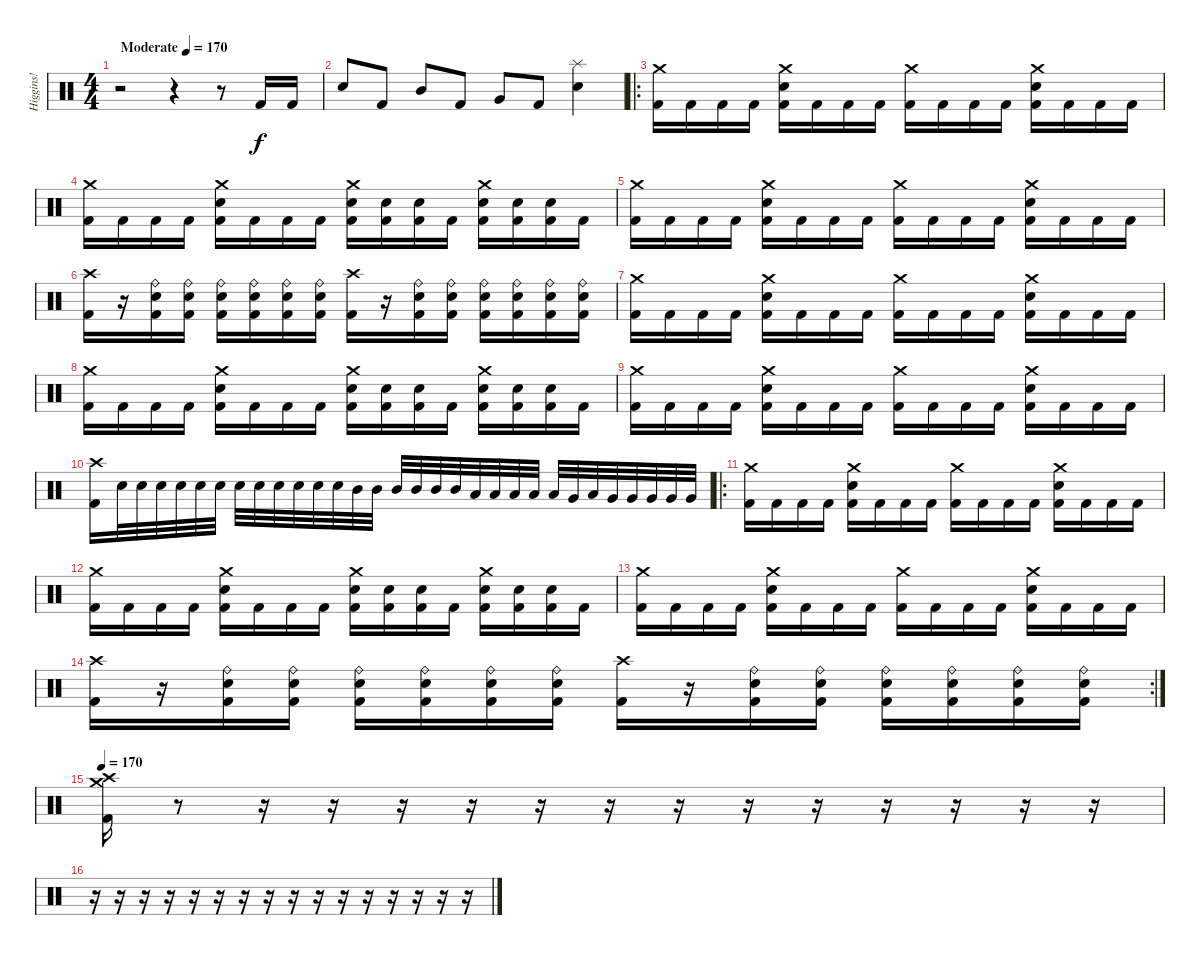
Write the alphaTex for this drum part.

\track ("Higgins!" "Higgins!") {instrument percussion}
\staff {score}
\articulation defaults
\ts (4 4)
\tempo (170 "Moderate")
\clef neutral
\ks c
r.2{dy f} r.4 r.8 "Kick (hit) 2".16 "Kick (hit) 2".16 |
"Snare (hit) 2".8 "Kick (hit) 2".8 "Mid Tom (hit)".8 "Kick (hit) 2".8 "Very Low Tom (hit)".8 "Kick (hit) 2".8 ("Splash (hit)" "Snare (hit) 2").4 |
\ro
("Crash medium (hit)" "Kick (hit) 2").16 "Kick (hit) 2".16 "Kick (hit) 2".16 "Kick (hit) 2".16 ("Crash medium (hit)" "Snare (hit) 2" "Kick (hit) 2").16 "Kick (hit) 2".16 "Kick (hit) 2".16 "Kick (hit) 2".16 ("Crash medium (hit)" "Kick (hit) 2").16 "Kick (hit) 2".16 "Kick (hit) 2".16 "Kick (hit) 2".16 ("Crash medium (hit)" "Snare (hit) 2" "Kick (hit) 2").16 "Kick (hit) 2".16 "Kick (hit) 2".16 "Kick (hit) 2".16 |
("Crash medium (hit)" "Kick (hit) 2").16 "Kick (hit) 2".16 "Kick (hit) 2".16 "Kick (hit) 2".16 ("Crash medium (hit)" "Snare (hit) 2" "Kick (hit) 2").16 "Kick (hit) 2".16 "Kick (hit) 2".16 "Kick (hit) 2".16 ("Crash medium (hit)" "Snare (hit) 2" "Kick (hit) 2").16 ("Snare (hit) 2" "Kick (hit) 2").16 ("Snare (hit) 2" "Kick (hit) 2").16 "Kick (hit) 2".16 ("Crash medium (hit)" "Snare (hit) 2" "Kick (hit) 2").16 ("Snare (hit) 2" "Kick (hit) 2").16 ("Snare (hit) 2" "Kick (hit) 2").16 "Kick (hit) 2".16 |
("Crash medium (hit)" "Kick (hit) 2").16 "Kick (hit) 2".16 "Kick (hit) 2".16 "Kick (hit) 2".16 ("Crash medium (hit)" "Snare (hit) 2" "Kick (hit) 2").16 "Kick (hit) 2".16 "Kick (hit) 2".16 "Kick (hit) 2".16 ("Crash medium (hit)" "Kick (hit) 2").16 "Kick (hit) 2".16 "Kick (hit) 2".16 "Kick (hit) 2".16 ("Crash medium (hit)" "Snare (hit) 2" "Kick (hit) 2").16 "Kick (hit) 2".16 "Kick (hit) 2".16 "Kick (hit) 2".16 |
("Crash high (hit)" "Kick (hit) 2").16 r.16 ("Ride (bell)" "Snare (hit) 2" "Kick (hit) 2").16 ("Ride (bell)" "Snare (hit) 2" "Kick (hit) 2").16 ("Ride (bell)" "Snare (hit) 2" "Kick (hit) 2").16 ("Ride (bell)" "Snare (hit) 2" "Kick (hit) 2").16 ("Ride (bell)" "Snare (hit) 2" "Kick (hit) 2").16 ("Ride (bell)" "Snare (hit) 2" "Kick (hit) 2").16 ("Crash high (hit)" "Kick (hit) 2").16 r.16 ("Ride (bell)" "Snare (hit) 2" "Kick (hit) 2").16 ("Ride (bell)" "Snare (hit) 2" "Kick (hit) 2").16 ("Ride (bell)" "Snare (hit) 2" "Kick (hit) 2").16 ("Ride (bell)" "Snare (hit) 2" "Kick (hit) 2").16 ("Ride (bell)" "Snare (hit) 2" "Kick (hit) 2").16 ("Ride (bell)" "Snare (hit) 2" "Kick (hit) 2").16 |
("Crash medium (hit)" "Kick (hit) 2").16 "Kick (hit) 2".16 "Kick (hit) 2".16 "Kick (hit) 2".16 ("Crash medium (hit)" "Snare (hit) 2" "Kick (hit) 2").16 "Kick (hit) 2".16 "Kick (hit) 2".16 "Kick (hit) 2".16 ("Crash medium (hit)" "Kick (hit) 2").16 "Kick (hit) 2".16 "Kick (hit) 2".16 "Kick (hit) 2".16 ("Crash medium (hit)" "Snare (hit) 2" "Kick (hit) 2").16 "Kick (hit) 2".16 "Kick (hit) 2".16 "Kick (hit) 2".16 |
("Crash medium (hit)" "Kick (hit) 2").16 "Kick (hit) 2".16 "Kick (hit) 2".16 "Kick (hit) 2".16 ("Crash medium (hit)" "Snare (hit) 2" "Kick (hit) 2").16 "Kick (hit) 2".16 "Kick (hit) 2".16 "Kick (hit) 2".16 ("Crash medium (hit)" "Snare (hit) 2" "Kick (hit) 2").16 ("Snare (hit) 2" "Kick (hit) 2").16 ("Snare (hit) 2" "Kick (hit) 2").16 "Kick (hit) 2".16 ("Crash medium (hit)" "Snare (hit) 2" "Kick (hit) 2").16 ("Snare (hit) 2" "Kick (hit) 2").16 ("Snare (hit) 2" "Kick (hit) 2").16 "Kick (hit) 2".16 |
("Crash medium (hit)" "Kick (hit) 2").16 "Kick (hit) 2".16 "Kick (hit) 2".16 "Kick (hit) 2".16 ("Crash medium (hit)" "Snare (hit) 2" "Kick (hit) 2").16 "Kick (hit) 2".16 "Kick (hit) 2".16 "Kick (hit) 2".16 ("Crash medium (hit)" "Kick (hit) 2").16 "Kick (hit) 2".16 "Kick (hit) 2".16 "Kick (hit) 2".16 ("Crash medium (hit)" "Snare (hit) 2" "Kick (hit) 2").16 "Kick (hit) 2".16 "Kick (hit) 2".16 "Kick (hit) 2".16 |
("Crash high (hit)" "Kick (hit) 2").16 "Snare (hit) 2".32 "Snare (hit) 2".32 "Snare (hit) 2".32 "Snare (hit) 2".32 "Snare (hit) 2".32 "Snare (hit) 2".32 "Snare (hit) 2".32 "Snare (hit) 2".32 "Snare (hit) 2".32 "Snare (hit) 2".32 "Snare (hit) 2".32 "Snare (hit) 2".32 "Mid Tom (hit)".32 "Mid Tom (hit)".32 "Mid Tom (hit)".32 "Mid Tom (hit)".32 "Mid Tom (hit)".32 "Mid Tom (hit)".32 "Low Tom (hit)".32 "Low Tom (hit)".32 "Low Tom (hit)".32 "Low Tom (hit)".32 "Low Tom (hit)".32 "Very Low Tom (hit)".32 "Low Tom (hit)".32 "Very Low Tom (hit)".32 "Very Low Tom (hit)".32 "Very Low Tom (hit)".32 "Very Low Tom (hit)".32 "Very Low Tom (hit)".32 |
\ro
("Crash medium (hit)" "Kick (hit) 2").16 "Kick (hit) 2".16 "Kick (hit) 2".16 "Kick (hit) 2".16 ("Crash medium (hit)" "Snare (hit) 2" "Kick (hit) 2").16 "Kick (hit) 2".16 "Kick (hit) 2".16 "Kick (hit) 2".16 ("Crash medium (hit)" "Kick (hit) 2").16 "Kick (hit) 2".16 "Kick (hit) 2".16 "Kick (hit) 2".16 ("Crash medium (hit)" "Snare (hit) 2" "Kick (hit) 2").16 "Kick (hit) 2".16 "Kick (hit) 2".16 "Kick (hit) 2".16 |
("Crash medium (hit)" "Kick (hit) 2").16 "Kick (hit) 2".16 "Kick (hit) 2".16 "Kick (hit) 2".16 ("Crash medium (hit)" "Snare (hit) 2" "Kick (hit) 2").16 "Kick (hit) 2".16 "Kick (hit) 2".16 "Kick (hit) 2".16 ("Crash medium (hit)" "Snare (hit) 2" "Kick (hit) 2").16 ("Snare (hit) 2" "Kick (hit) 2").16 ("Snare (hit) 2" "Kick (hit) 2").16 "Kick (hit) 2".16 ("Crash medium (hit)" "Snare (hit) 2" "Kick (hit) 2").16 ("Snare (hit) 2" "Kick (hit) 2").16 ("Snare (hit) 2" "Kick (hit) 2").16 "Kick (hit) 2".16 |
("Crash medium (hit)" "Kick (hit) 2").16 "Kick (hit) 2".16 "Kick (hit) 2".16 "Kick (hit) 2".16 ("Crash medium (hit)" "Snare (hit) 2" "Kick (hit) 2").16 "Kick (hit) 2".16 "Kick (hit) 2".16 "Kick (hit) 2".16 ("Crash medium (hit)" "Kick (hit) 2").16 "Kick (hit) 2".16 "Kick (hit) 2".16 "Kick (hit) 2".16 ("Crash medium (hit)" "Snare (hit) 2" "Kick (hit) 2").16 "Kick (hit) 2".16 "Kick (hit) 2".16 "Kick (hit) 2".16 |
\rc 2
("Crash high (hit)" "Kick (hit) 2").16 r.16 ("Ride (bell)" "Snare (hit) 2" "Kick (hit) 2").16 ("Ride (bell)" "Snare (hit) 2" "Kick (hit) 2").16 ("Ride (bell)" "Snare (hit) 2" "Kick (hit) 2").16 ("Ride (bell)" "Snare (hit) 2" "Kick (hit) 2").16 ("Ride (bell)" "Snare (hit) 2" "Kick (hit) 2").16 ("Ride (bell)" "Snare (hit) 2" "Kick (hit) 2").16 ("Crash high (hit)" "Kick (hit) 2").16 r.16 ("Ride (bell)" "Snare (hit) 2" "Kick (hit) 2").16 ("Ride (bell)" "Snare (hit) 2" "Kick (hit) 2").16 ("Ride (bell)" "Snare (hit) 2" "Kick (hit) 2").16 ("Ride (bell)" "Snare (hit) 2" "Kick (hit) 2").16 ("Ride (bell)" "Snare (hit) 2" "Kick (hit) 2").16 ("Ride (bell)" "Snare (hit) 2" "Kick (hit) 2").16 |
\tempo 170
("Crash medium (hit)" "Crash high (hit)" "Kick (hit) 2").16 r.8 r.16 r.16 r.16 r.16 r.16 r.16 r.16 r.16 r.16 r.16 r.16 r.16 r.16 |
r.16 r.16 r.16 r.16 r.16 r.16 r.16 r.16 r.16 r.16 r.16 r.16 r.16 r.16 r.16 r.16
